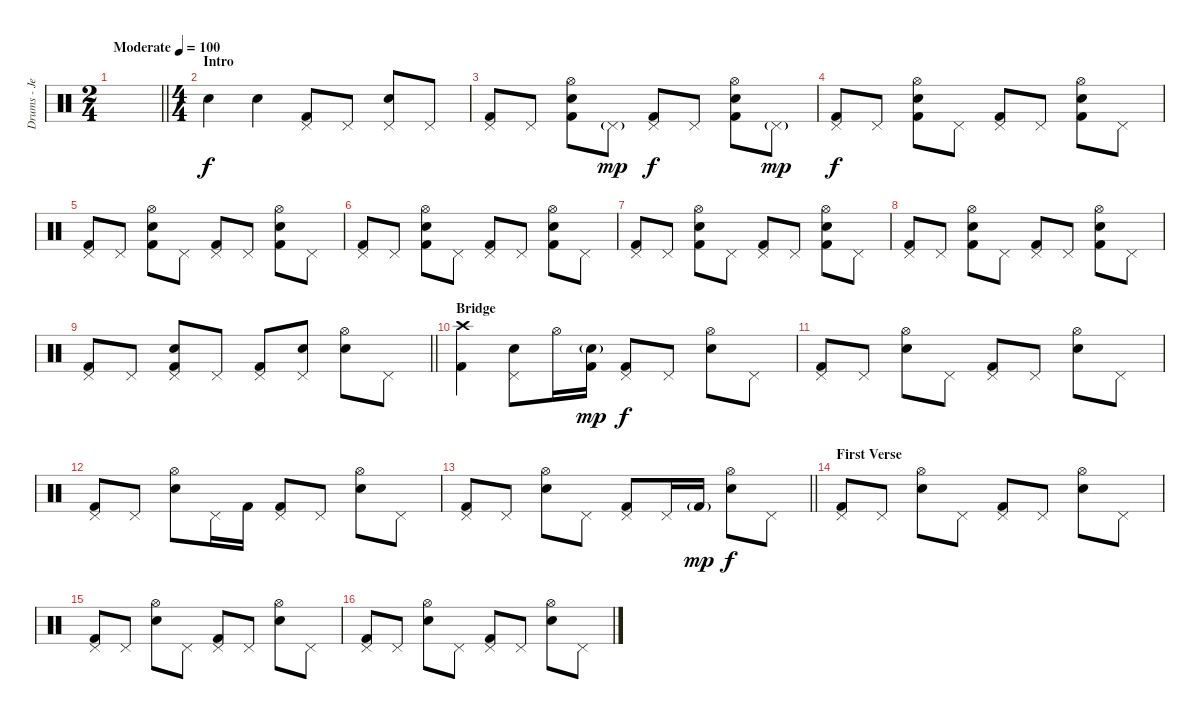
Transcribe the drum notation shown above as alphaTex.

\track ("Drums - Jeremiah Green" "Drums - Je") {instrument percussion}
\staff {score}
\articulation defaults
\ts (2 4)
\tempo (100 "Moderate")
\clef neutral
\barLineRight lightlight
\ks c
|
\ts (4 4)
\section ("" "Intro")
"Electric Snare (hit)".4 "Electric Snare (hit)".4 ("Pedal Hi-Hat (hit)" "Kick (hit) 2").8 "Pedal Hi-Hat (hit)".8 ("Pedal Hi-Hat (hit)" "Electric Snare (hit)").8 "Pedal Hi-Hat (hit)".8 |
("Pedal Hi-Hat (hit)" "Kick (hit) 2").8 "Pedal Hi-Hat (hit)".8 ("Hi-Hat (open)" "Electric Snare (hit)" "Kick (hit) 2").8 "Pedal Hi-Hat (hit)"{g}.8{dy mp} ("Pedal Hi-Hat (hit)" "Kick (hit) 2").8{dy f} "Pedal Hi-Hat (hit)".8 ("Hi-Hat (open)" "Electric Snare (hit)" "Kick (hit) 2").8 "Pedal Hi-Hat (hit)"{g}.8{dy mp} |
("Pedal Hi-Hat (hit)" "Kick (hit) 2").8{dy f} "Pedal Hi-Hat (hit)".8 ("Hi-Hat (open)" "Electric Snare (hit)" "Kick (hit) 2").8 "Pedal Hi-Hat (hit)".8 ("Pedal Hi-Hat (hit)" "Kick (hit) 2").8 "Pedal Hi-Hat (hit)".8 ("Hi-Hat (open)" "Electric Snare (hit)" "Kick (hit) 2").8 "Pedal Hi-Hat (hit)".8 |
("Pedal Hi-Hat (hit)" "Kick (hit) 2").8 "Pedal Hi-Hat (hit)".8 ("Hi-Hat (open)" "Electric Snare (hit)" "Kick (hit) 2").8 "Pedal Hi-Hat (hit)".8 ("Pedal Hi-Hat (hit)" "Kick (hit) 2").8 "Pedal Hi-Hat (hit)".8 ("Hi-Hat (open)" "Electric Snare (hit)" "Kick (hit) 2").8 "Pedal Hi-Hat (hit)".8 |
("Pedal Hi-Hat (hit)" "Kick (hit) 2").8 "Pedal Hi-Hat (hit)".8 ("Hi-Hat (open)" "Electric Snare (hit)" "Kick (hit) 2").8 "Pedal Hi-Hat (hit)".8 ("Pedal Hi-Hat (hit)" "Kick (hit) 2").8 "Pedal Hi-Hat (hit)".8 ("Hi-Hat (open)" "Electric Snare (hit)" "Kick (hit) 2").8 "Pedal Hi-Hat (hit)".8 |
("Pedal Hi-Hat (hit)" "Kick (hit) 2").8 "Pedal Hi-Hat (hit)".8 ("Hi-Hat (open)" "Electric Snare (hit)" "Kick (hit) 2").8 "Pedal Hi-Hat (hit)".8 ("Pedal Hi-Hat (hit)" "Kick (hit) 2").8 "Pedal Hi-Hat (hit)".8 ("Hi-Hat (open)" "Electric Snare (hit)" "Kick (hit) 2").8 "Pedal Hi-Hat (hit)".8 |
("Pedal Hi-Hat (hit)" "Kick (hit) 2").8 "Pedal Hi-Hat (hit)".8 ("Hi-Hat (open)" "Electric Snare (hit)" "Kick (hit) 2").8 "Pedal Hi-Hat (hit)".8 ("Pedal Hi-Hat (hit)" "Kick (hit) 2").8 "Pedal Hi-Hat (hit)".8 ("Hi-Hat (open)" "Electric Snare (hit)" "Kick (hit) 2").8 "Pedal Hi-Hat (hit)".8 |
\barLineRight lightlight
("Pedal Hi-Hat (hit)" "Kick (hit) 2").8{volume 12} "Pedal Hi-Hat (hit)".8 ("Pedal Hi-Hat (hit)" "Electric Snare (hit)" "Kick (hit) 2").8 "Pedal Hi-Hat (hit)".8 ("Pedal Hi-Hat (hit)" "Kick (hit) 2").8 ("Pedal Hi-Hat (hit)" "Electric Snare (hit)").8 ("Hi-Hat (open)" "Electric Snare (hit)").8 "Pedal Hi-Hat (hit)".8 |
\section ("" "Bridge")
("Crash high (hit)" "Kick (hit) 2").4 ("Pedal Hi-Hat (hit)" "Electric Snare (hit)").8 "Hi-Hat (open)".16 ("Electric Snare (hit)"{g} "Kick (hit) 2").16{dy mp} ("Pedal Hi-Hat (hit)" "Kick (hit) 2").8{dy f} "Pedal Hi-Hat (hit)".8 ("Hi-Hat (open)" "Electric Snare (hit)").8 "Pedal Hi-Hat (hit)".8 |
("Pedal Hi-Hat (hit)" "Kick (hit) 2").8 "Pedal Hi-Hat (hit)".8 ("Hi-Hat (open)" "Electric Snare (hit)").8 "Pedal Hi-Hat (hit)".8 ("Pedal Hi-Hat (hit)" "Kick (hit) 2").8 "Pedal Hi-Hat (hit)".8 ("Hi-Hat (open)" "Electric Snare (hit)").8 "Pedal Hi-Hat (hit)".8 |
("Pedal Hi-Hat (hit)" "Kick (hit) 2").8 "Pedal Hi-Hat (hit)".8 ("Hi-Hat (open)" "Electric Snare (hit)").8 "Pedal Hi-Hat (hit)".16 "Kick (hit) 2".16 ("Pedal Hi-Hat (hit)" "Kick (hit) 2").8 "Pedal Hi-Hat (hit)".8 ("Hi-Hat (open)" "Electric Snare (hit)").8 "Pedal Hi-Hat (hit)".8 |
\barLineRight lightlight
("Pedal Hi-Hat (hit)" "Kick (hit) 2").8 "Pedal Hi-Hat (hit)".8 ("Hi-Hat (open)" "Electric Snare (hit)").8 "Pedal Hi-Hat (hit)".8 ("Pedal Hi-Hat (hit)" "Kick (hit) 2").8 "Pedal Hi-Hat (hit)".16 "Kick (hit) 2"{g}.16{dy mp} ("Hi-Hat (open)" "Electric Snare (hit)").8{dy f} "Pedal Hi-Hat (hit)".8 |
\section ("" "First Verse")
("Pedal Hi-Hat (hit)" "Kick (hit) 2").8 "Pedal Hi-Hat (hit)".8 ("Hi-Hat (open)" "Electric Snare (hit)").8 "Pedal Hi-Hat (hit)".8 ("Pedal Hi-Hat (hit)" "Kick (hit) 2").8 "Pedal Hi-Hat (hit)".8 ("Hi-Hat (open)" "Electric Snare (hit)").8 "Pedal Hi-Hat (hit)".8 |
("Pedal Hi-Hat (hit)" "Kick (hit) 2").8 "Pedal Hi-Hat (hit)".8 ("Hi-Hat (open)" "Electric Snare (hit)").8 "Pedal Hi-Hat (hit)".8 ("Pedal Hi-Hat (hit)" "Kick (hit) 2").8 "Pedal Hi-Hat (hit)".8 ("Hi-Hat (open)" "Electric Snare (hit)").8 "Pedal Hi-Hat (hit)".8 |
("Pedal Hi-Hat (hit)" "Kick (hit) 2").8 "Pedal Hi-Hat (hit)".8 ("Hi-Hat (open)" "Electric Snare (hit)").8 "Pedal Hi-Hat (hit)".8 ("Pedal Hi-Hat (hit)" "Kick (hit) 2").8 "Pedal Hi-Hat (hit)".8 ("Hi-Hat (open)" "Electric Snare (hit)").8 "Pedal Hi-Hat (hit)".8
